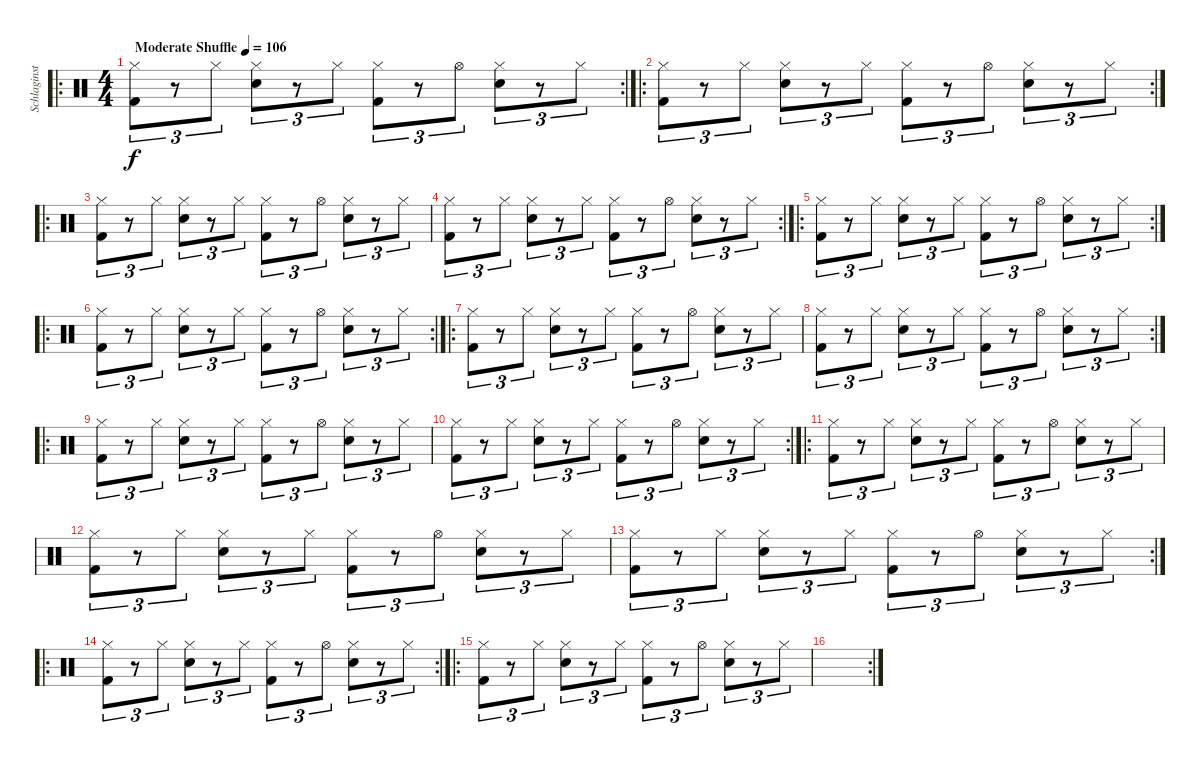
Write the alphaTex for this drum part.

\track ("Schlaginstrumente - Auswahl" "Schlaginst") {instrument percussion}
\staff {score}
\articulation defaults
\ro
\rc 2
\ts (4 4)
\tempo (106 "Moderate Shuffle")
\clef neutral
\ks c
("Hi-Hat (closed)" "Kick (hit) 2").8{tu (3 2) dy f} r.8{tu (3 2)} "Hi-Hat (closed)".8{tu (3 2)} ("Hi-Hat (closed)" "Snare (hit) 2").8{tu (3 2)} r.8{tu (3 2)} "Hi-Hat (closed)".8{tu (3 2)} ("Hi-Hat (closed)" "Kick (hit) 2").8{tu (3 2)} r.8{tu (3 2)} "Hi-Hat (open)".8{tu (3 2)} ("Hi-Hat (closed)" "Snare (hit) 2").8{tu (3 2)} r.8{tu (3 2)} "Hi-Hat (closed)".8{tu (3 2)} |
\ro
\rc 2
("Hi-Hat (closed)" "Kick (hit) 2").8{tu (3 2)} r.8{tu (3 2)} "Hi-Hat (closed)".8{tu (3 2)} ("Hi-Hat (closed)" "Snare (hit) 2").8{tu (3 2)} r.8{tu (3 2)} "Hi-Hat (closed)".8{tu (3 2)} ("Hi-Hat (closed)" "Kick (hit) 2").8{tu (3 2)} r.8{tu (3 2)} "Hi-Hat (open)".8{tu (3 2)} ("Hi-Hat (closed)" "Snare (hit) 2").8{tu (3 2)} r.8{tu (3 2)} "Hi-Hat (closed)".8{tu (3 2)} |
\ro
("Hi-Hat (closed)" "Kick (hit) 2").8{tu (3 2)} r.8{tu (3 2)} "Hi-Hat (closed)".8{tu (3 2)} ("Hi-Hat (closed)" "Snare (hit) 2").8{tu (3 2)} r.8{tu (3 2)} "Hi-Hat (closed)".8{tu (3 2)} ("Hi-Hat (closed)" "Kick (hit) 2").8{tu (3 2)} r.8{tu (3 2)} "Hi-Hat (open)".8{tu (3 2)} ("Hi-Hat (closed)" "Snare (hit) 2").8{tu (3 2)} r.8{tu (3 2)} "Hi-Hat (closed)".8{tu (3 2)} |
\rc 2
("Hi-Hat (closed)" "Kick (hit) 2").8{tu (3 2)} r.8{tu (3 2)} "Hi-Hat (closed)".8{tu (3 2)} ("Hi-Hat (closed)" "Snare (hit) 2").8{tu (3 2)} r.8{tu (3 2)} "Hi-Hat (closed)".8{tu (3 2)} ("Hi-Hat (closed)" "Kick (hit) 2").8{tu (3 2)} r.8{tu (3 2)} "Hi-Hat (open)".8{tu (3 2)} ("Hi-Hat (closed)" "Snare (hit) 2").8{tu (3 2)} r.8{tu (3 2)} "Hi-Hat (closed)".8{tu (3 2)} |
\ro
\rc 2
("Hi-Hat (closed)" "Kick (hit) 2").8{tu (3 2)} r.8{tu (3 2)} "Hi-Hat (closed)".8{tu (3 2)} ("Hi-Hat (closed)" "Snare (hit) 2").8{tu (3 2)} r.8{tu (3 2)} "Hi-Hat (closed)".8{tu (3 2)} ("Hi-Hat (closed)" "Kick (hit) 2").8{tu (3 2)} r.8{tu (3 2)} "Hi-Hat (open)".8{tu (3 2)} ("Hi-Hat (closed)" "Snare (hit) 2").8{tu (3 2)} r.8{tu (3 2)} "Hi-Hat (closed)".8{tu (3 2)} |
\ro
\rc 2
("Hi-Hat (closed)" "Kick (hit) 2").8{tu (3 2)} r.8{tu (3 2)} "Hi-Hat (closed)".8{tu (3 2)} ("Hi-Hat (closed)" "Snare (hit) 2").8{tu (3 2)} r.8{tu (3 2)} "Hi-Hat (closed)".8{tu (3 2)} ("Hi-Hat (closed)" "Kick (hit) 2").8{tu (3 2)} r.8{tu (3 2)} "Hi-Hat (open)".8{tu (3 2)} ("Hi-Hat (closed)" "Snare (hit) 2").8{tu (3 2)} r.8{tu (3 2)} "Hi-Hat (closed)".8{tu (3 2)} |
\ro
("Hi-Hat (closed)" "Kick (hit) 2").8{tu (3 2)} r.8{tu (3 2)} "Hi-Hat (closed)".8{tu (3 2)} ("Hi-Hat (closed)" "Snare (hit) 2").8{tu (3 2)} r.8{tu (3 2)} "Hi-Hat (closed)".8{tu (3 2)} ("Hi-Hat (closed)" "Kick (hit) 2").8{tu (3 2)} r.8{tu (3 2)} "Hi-Hat (open)".8{tu (3 2)} ("Hi-Hat (closed)" "Snare (hit) 2").8{tu (3 2)} r.8{tu (3 2)} "Hi-Hat (closed)".8{tu (3 2)} |
\rc 2
("Hi-Hat (closed)" "Kick (hit) 2").8{tu (3 2)} r.8{tu (3 2)} "Hi-Hat (closed)".8{tu (3 2)} ("Hi-Hat (closed)" "Snare (hit) 2").8{tu (3 2)} r.8{tu (3 2)} "Hi-Hat (closed)".8{tu (3 2)} ("Hi-Hat (closed)" "Kick (hit) 2").8{tu (3 2)} r.8{tu (3 2)} "Hi-Hat (open)".8{tu (3 2)} ("Hi-Hat (closed)" "Snare (hit) 2").8{tu (3 2)} r.8{tu (3 2)} "Hi-Hat (closed)".8{tu (3 2)} |
\ro
("Hi-Hat (closed)" "Kick (hit) 2").8{tu (3 2)} r.8{tu (3 2)} "Hi-Hat (closed)".8{tu (3 2)} ("Hi-Hat (closed)" "Snare (hit) 2").8{tu (3 2)} r.8{tu (3 2)} "Hi-Hat (closed)".8{tu (3 2)} ("Hi-Hat (closed)" "Kick (hit) 2").8{tu (3 2)} r.8{tu (3 2)} "Hi-Hat (open)".8{tu (3 2)} ("Hi-Hat (closed)" "Snare (hit) 2").8{tu (3 2)} r.8{tu (3 2)} "Hi-Hat (closed)".8{tu (3 2)} |
\rc 2
("Hi-Hat (closed)" "Kick (hit) 2").8{tu (3 2)} r.8{tu (3 2)} "Hi-Hat (closed)".8{tu (3 2)} ("Hi-Hat (closed)" "Snare (hit) 2").8{tu (3 2)} r.8{tu (3 2)} "Hi-Hat (closed)".8{tu (3 2)} ("Hi-Hat (closed)" "Kick (hit) 2").8{tu (3 2)} r.8{tu (3 2)} "Hi-Hat (open)".8{tu (3 2)} ("Hi-Hat (closed)" "Snare (hit) 2").8{tu (3 2)} r.8{tu (3 2)} "Hi-Hat (closed)".8{tu (3 2)} |
\ro
("Hi-Hat (closed)" "Kick (hit) 2").8{tu (3 2)} r.8{tu (3 2)} "Hi-Hat (closed)".8{tu (3 2)} ("Hi-Hat (closed)" "Snare (hit) 2").8{tu (3 2)} r.8{tu (3 2)} "Hi-Hat (closed)".8{tu (3 2)} ("Hi-Hat (closed)" "Kick (hit) 2").8{tu (3 2)} r.8{tu (3 2)} "Hi-Hat (open)".8{tu (3 2)} ("Hi-Hat (closed)" "Snare (hit) 2").8{tu (3 2)} r.8{tu (3 2)} "Hi-Hat (closed)".8{tu (3 2)} |
("Hi-Hat (closed)" "Kick (hit) 2").8{tu (3 2)} r.8{tu (3 2)} "Hi-Hat (closed)".8{tu (3 2)} ("Hi-Hat (closed)" "Snare (hit) 2").8{tu (3 2)} r.8{tu (3 2)} "Hi-Hat (closed)".8{tu (3 2)} ("Hi-Hat (closed)" "Kick (hit) 2").8{tu (3 2)} r.8{tu (3 2)} "Hi-Hat (open)".8{tu (3 2)} ("Hi-Hat (closed)" "Snare (hit) 2").8{tu (3 2)} r.8{tu (3 2)} "Hi-Hat (closed)".8{tu (3 2)} |
\rc 2
("Hi-Hat (closed)" "Kick (hit) 2").8{tu (3 2)} r.8{tu (3 2)} "Hi-Hat (closed)".8{tu (3 2)} ("Hi-Hat (closed)" "Snare (hit) 2").8{tu (3 2)} r.8{tu (3 2)} "Hi-Hat (closed)".8{tu (3 2)} ("Hi-Hat (closed)" "Kick (hit) 2").8{tu (3 2)} r.8{tu (3 2)} "Hi-Hat (open)".8{tu (3 2)} ("Hi-Hat (closed)" "Snare (hit) 2").8{tu (3 2)} r.8{tu (3 2)} "Hi-Hat (closed)".8{tu (3 2)} |
\ro
\rc 2
("Hi-Hat (closed)" "Kick (hit) 2").8{tu (3 2)} r.8{tu (3 2)} "Hi-Hat (closed)".8{tu (3 2)} ("Hi-Hat (closed)" "Snare (hit) 2").8{tu (3 2)} r.8{tu (3 2)} "Hi-Hat (closed)".8{tu (3 2)} ("Hi-Hat (closed)" "Kick (hit) 2").8{tu (3 2)} r.8{tu (3 2)} "Hi-Hat (open)".8{tu (3 2)} ("Hi-Hat (closed)" "Snare (hit) 2").8{tu (3 2)} r.8{tu (3 2)} "Hi-Hat (closed)".8{tu (3 2)} |
\ro
("Hi-Hat (closed)" "Kick (hit) 2").8{tu (3 2)} r.8{tu (3 2)} "Hi-Hat (closed)".8{tu (3 2)} ("Hi-Hat (closed)" "Snare (hit) 2").8{tu (3 2)} r.8{tu (3 2)} "Hi-Hat (closed)".8{tu (3 2)} ("Hi-Hat (closed)" "Kick (hit) 2").8{tu (3 2)} r.8{tu (3 2)} "Hi-Hat (open)".8{tu (3 2)} ("Hi-Hat (closed)" "Snare (hit) 2").8{tu (3 2)} r.8{tu (3 2)} "Hi-Hat (closed)".8{tu (3 2)} |
\rc 2
